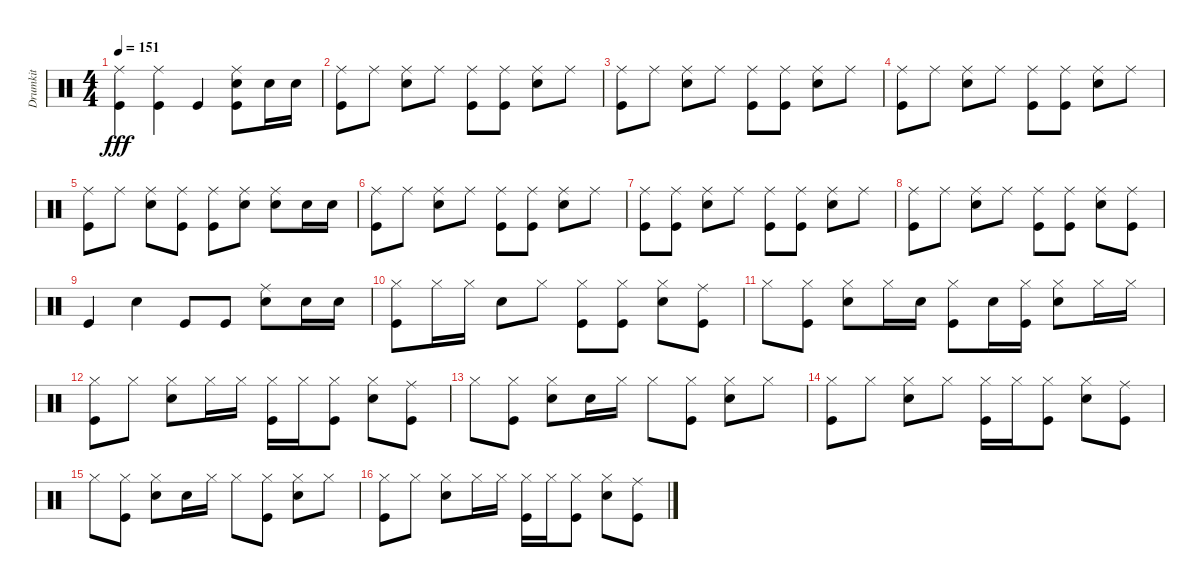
\track ("Drumkit" "Drumkit") {instrument percussion}
\staff {score}
\articulation defaults
\ts (4 4)
\tempo 151
\clef neutral
\ks c
("Ride (middle)" "Kick (hit)").4{dy fff} ("Ride (middle)" "Kick (hit)").4 "Kick (hit)".4 ("Kick (hit)" "Snare (hit) 2" "Ride (middle)").8 "Snare (hit) 2".16 "Snare (hit) 2".16 |
("Ride (middle)" "Kick (hit)").8 "Ride (middle)".8 ("Ride (middle)" "Snare (hit) 2").8 "Ride (middle)".8 ("Ride (middle)" "Kick (hit)").8 ("Ride (middle)" "Kick (hit)").8 ("Ride (middle)" "Snare (hit) 2").8 "Ride (middle)".8 |
("Ride (middle)" "Kick (hit)").8 "Ride (middle)".8 ("Ride (middle)" "Snare (hit) 2").8 "Ride (middle)".8 ("Ride (middle)" "Kick (hit)").8 ("Ride (middle)" "Kick (hit)").8 ("Ride (middle)" "Snare (hit) 2").8 "Ride (middle)".8 |
("Ride (middle)" "Kick (hit)").8 "Ride (middle)".8 ("Ride (middle)" "Snare (hit) 2").8 "Ride (middle)".8 ("Ride (middle)" "Kick (hit)").8 ("Ride (middle)" "Kick (hit)").8 ("Ride (middle)" "Snare (hit) 2").8 "Ride (middle)".8 |
("Ride (middle)" "Kick (hit)").8 "Ride (middle)".8 ("Ride (middle)" "Snare (hit) 2").8 ("Ride (middle)" "Kick (hit)").8 ("Ride (middle)" "Kick (hit)").8 ("Ride (middle)" "Snare (hit) 2").8 ("Ride (middle)" "Snare (hit) 2").8 "Snare (hit) 2".16 "Snare (hit) 2".16 |
("Ride (middle)" "Kick (hit)").8 "Ride (middle)".8 ("Ride (middle)" "Snare (hit) 2").8 "Ride (middle)".8 ("Ride (middle)" "Kick (hit)").8 ("Ride (middle)" "Kick (hit)").8 ("Ride (middle)" "Snare (hit) 2").8 "Ride (middle)".8 |
("Ride (middle)" "Kick (hit)").8 ("Ride (middle)" "Kick (hit)").8 ("Ride (middle)" "Snare (hit) 2").8 "Ride (middle)".8 ("Ride (middle)" "Kick (hit)").8 ("Ride (middle)" "Kick (hit)").8 ("Ride (middle)" "Snare (hit) 2").8 "Ride (middle)".8 |
("Ride (middle)" "Kick (hit)").8 "Ride (middle)".8 ("Ride (middle)" "Snare (hit) 2").8 "Ride (middle)".8 ("Ride (middle)" "Kick (hit)").8 ("Ride (middle)" "Kick (hit)").8 ("Ride (middle)" "Snare (hit) 2").8 ("Ride (middle)" "Kick (hit)").8 |
"Kick (hit)".4 "Snare (hit) 2".4 "Kick (hit)".8 "Kick (hit)".8 ("Ride (middle)" "Snare (hit) 2").8 "Snare (hit) 2".16 "Snare (hit) 2".16 |
("Hi-Hat (closed)" "Kick (hit)").8 "Hi-Hat (closed)".16 "Hi-Hat (closed)".16 "Snare (hit) 2".8 "Hi-Hat (closed)".8 ("Kick (hit)" "Hi-Hat (closed)").8 ("Kick (hit)" "Hi-Hat (closed)").8 ("Hi-Hat (closed)" "Snare (hit) 2").8 ("Ride (middle)" "Kick (hit)").8 |
"Hi-Hat (closed)".8 ("Hi-Hat (closed)" "Kick (hit)").8 ("Hi-Hat (closed)" "Snare (hit) 2").8 "Hi-Hat (closed)".16 "Snare (hit) 2".16 ("Kick (hit)" "Hi-Hat (closed)").8 "Snare (hit) 2".16 ("Hi-Hat (closed)" "Kick (hit)").16 ("Snare (hit) 2" "Hi-Hat (closed)").8 "Hi-Hat (closed)".16 "Hi-Hat (closed)".16 |
("Kick (hit)" "Hi-Hat (closed)").8 "Hi-Hat (closed)".8 ("Hi-Hat (closed)" "Snare (hit) 2").8 "Hi-Hat (closed)".16 "Hi-Hat (closed)".16 ("Hi-Hat (closed)" "Kick (hit)").16 "Hi-Hat (closed)".16 ("Kick (hit)" "Hi-Hat (closed)").8 ("Hi-Hat (closed)" "Snare (hit) 2").8 ("Kick (hit)" "Ride (middle)").8 |
"Hi-Hat (closed)".8 ("Kick (hit)" "Hi-Hat (closed)").8 ("Hi-Hat (closed)" "Snare (hit) 2").8 "Snare (hit) 2".16 "Hi-Hat (closed)".16 "Hi-Hat (closed)".8 ("Hi-Hat (closed)" "Kick (hit)").8 ("Hi-Hat (closed)" "Snare (hit) 2").8 "Hi-Hat (closed)".8 |
("Hi-Hat (closed)" "Kick (hit)").8 "Hi-Hat (closed)".8 ("Hi-Hat (closed)" "Snare (hit) 2").8 "Hi-Hat (closed)".8 ("Hi-Hat (closed)" "Kick (hit)").16 "Hi-Hat (closed)".16 ("Hi-Hat (closed)" "Kick (hit)").8 ("Hi-Hat (closed)" "Snare (hit) 2").8 ("Kick (hit)" "Ride (middle)").8 |
"Hi-Hat (closed)".8 ("Kick (hit)" "Hi-Hat (closed)").8 ("Hi-Hat (closed)" "Snare (hit) 2").8 "Snare (hit) 2".16 "Hi-Hat (closed)".16 "Hi-Hat (closed)".8 ("Hi-Hat (closed)" "Kick (hit)").8 ("Hi-Hat (closed)" "Snare (hit) 2").8 "Hi-Hat (closed)".8 |
("Kick (hit)" "Hi-Hat (closed)").8 "Hi-Hat (closed)".8 ("Hi-Hat (closed)" "Snare (hit) 2").8 "Hi-Hat (closed)".16 "Hi-Hat (closed)".16 ("Hi-Hat (closed)" "Kick (hit)").16 "Hi-Hat (closed)".16 ("Kick (hit)" "Hi-Hat (closed)").8 ("Hi-Hat (closed)" "Snare (hit) 2").8 ("Kick (hit)" "Ride (middle)").8
